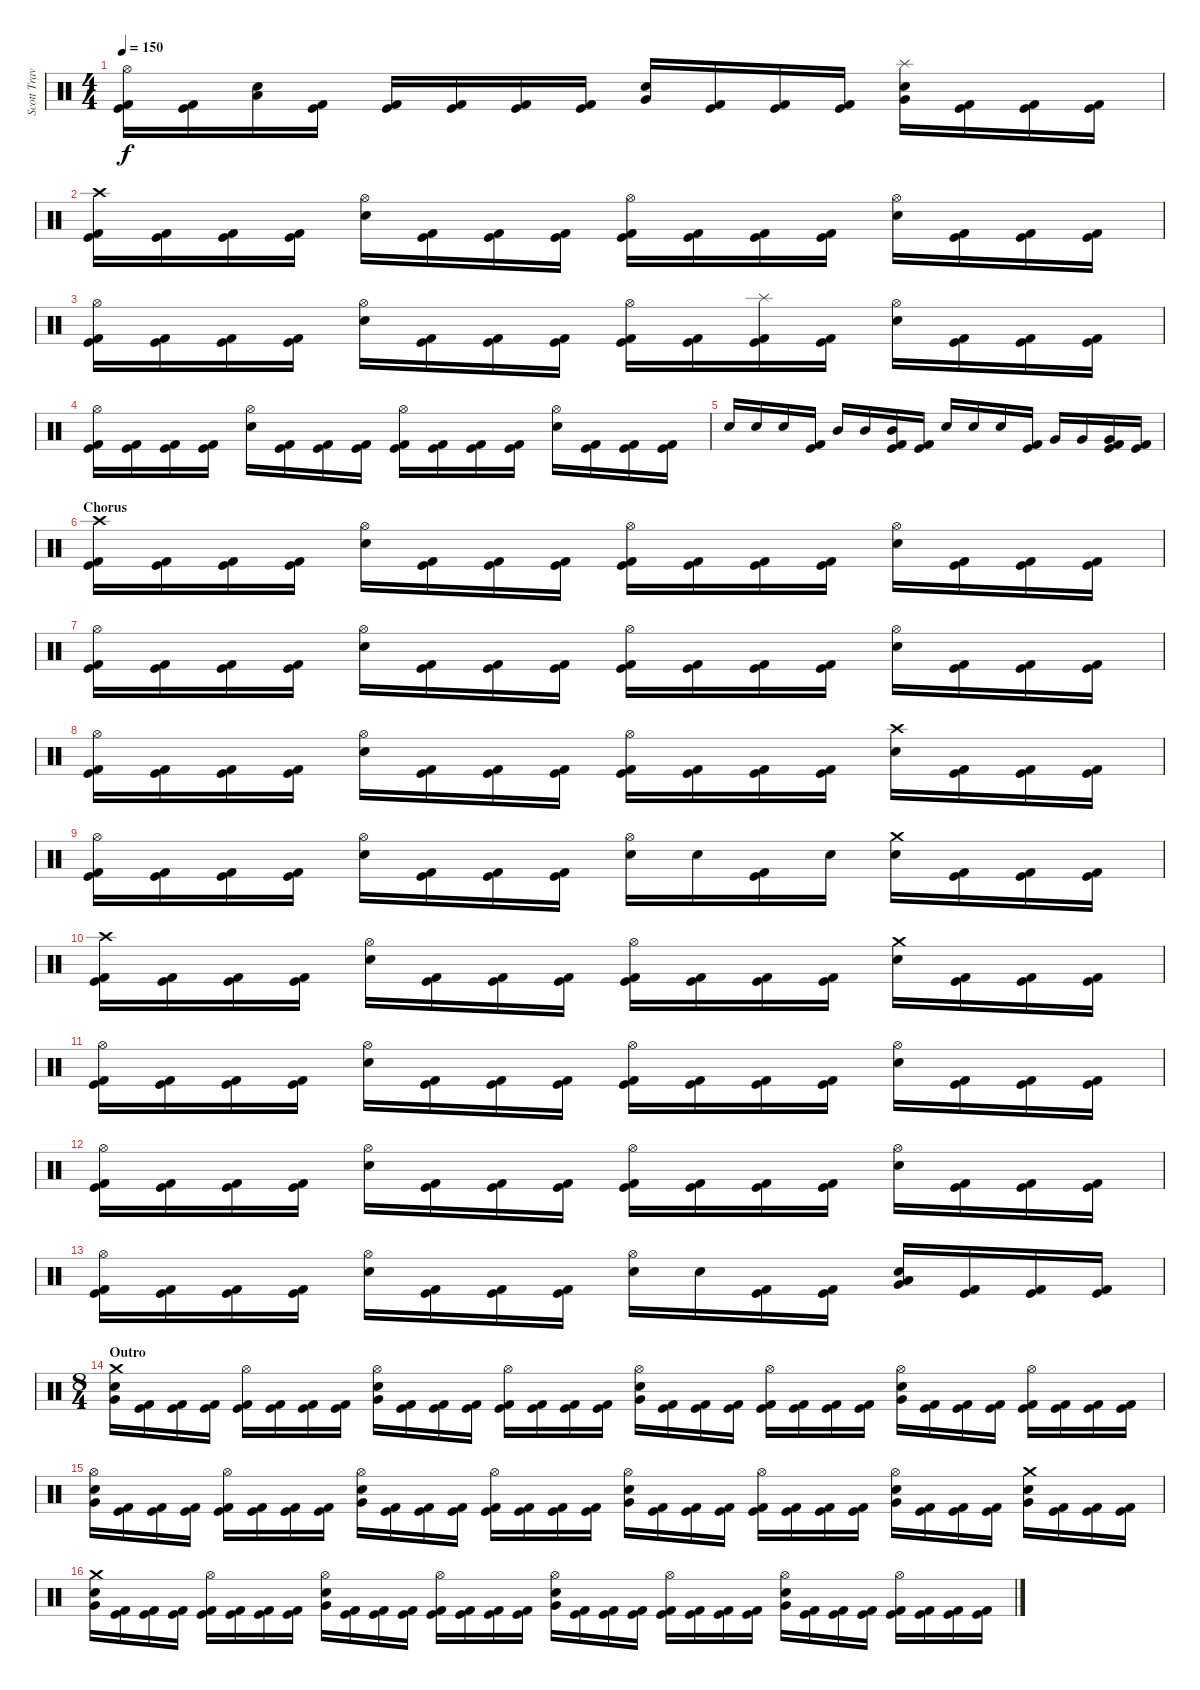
\track ("Scott Travis" "Scott Trav") {instrument percussion}
\staff {score}
\articulation defaults
\ts (4 4)
\tempo 150
\clef neutral
\ks c
("Hi-Hat (open)" "Kick (hit)" "Kick (hit) 2").16{dy f} ("Kick (hit)" "Kick (hit) 2").16 ("Low Tom (hit)" "Electric Snare (hit)").16 ("Kick (hit)" "Kick (hit) 2").16 ("Kick (hit)" "Kick (hit) 2").16 ("Kick (hit)" "Kick (hit) 2").16 ("Kick (hit)" "Kick (hit) 2").16 ("Kick (hit)" "Kick (hit) 2").16 ("Very Low Tom (hit)" "Electric Snare (hit)").16 ("Kick (hit)" "Kick (hit) 2").16 ("Kick (hit)" "Kick (hit) 2").16 ("Kick (hit)" "Kick (hit) 2").16 ("Splash (hit)" "Very Low Tom (hit)" "Electric Snare (hit)").16 ("Kick (hit)" "Kick (hit) 2").16 ("Kick (hit)" "Kick (hit) 2").16 ("Kick (hit)" "Kick (hit) 2").16 |
("Crash high (hit)" "Kick (hit)" "Kick (hit) 2").16 ("Kick (hit)" "Kick (hit) 2").16 ("Kick (hit)" "Kick (hit) 2").16 ("Kick (hit)" "Kick (hit) 2").16 ("Hi-Hat (open)" "Electric Snare (hit)").16 ("Kick (hit)" "Kick (hit) 2").16 ("Kick (hit)" "Kick (hit) 2").16 ("Kick (hit)" "Kick (hit) 2").16 ("Hi-Hat (open)" "Kick (hit)" "Kick (hit) 2").16 ("Kick (hit)" "Kick (hit) 2").16 ("Kick (hit)" "Kick (hit) 2").16 ("Kick (hit)" "Kick (hit) 2").16 ("Hi-Hat (open)" "Electric Snare (hit)").16 ("Kick (hit)" "Kick (hit) 2").16 ("Kick (hit)" "Kick (hit) 2").16 ("Kick (hit)" "Kick (hit) 2").16 |
("Hi-Hat (open)" "Kick (hit)" "Kick (hit) 2").16 ("Kick (hit)" "Kick (hit) 2").16 ("Kick (hit)" "Kick (hit) 2").16 ("Kick (hit)" "Kick (hit) 2").16 ("Hi-Hat (open)" "Electric Snare (hit)").16 ("Kick (hit)" "Kick (hit) 2").16 ("Kick (hit)" "Kick (hit) 2").16 ("Kick (hit)" "Kick (hit) 2").16 ("Hi-Hat (open)" "Kick (hit)" "Kick (hit) 2").16 ("Kick (hit)" "Kick (hit) 2").16 ("Splash (hit)" "Kick (hit)" "Kick (hit) 2").16 ("Kick (hit)" "Kick (hit) 2").16 ("Hi-Hat (open)" "Electric Snare (hit)").16 ("Kick (hit)" "Kick (hit) 2").16 ("Kick (hit)" "Kick (hit) 2").16 ("Kick (hit)" "Kick (hit) 2").16 |
("Hi-Hat (open)" "Kick (hit)" "Kick (hit) 2").16 ("Kick (hit)" "Kick (hit) 2").16 ("Kick (hit)" "Kick (hit) 2").16 ("Kick (hit)" "Kick (hit) 2").16 ("Hi-Hat (open)" "Electric Snare (hit)").16 ("Kick (hit)" "Kick (hit) 2").16 ("Kick (hit)" "Kick (hit) 2").16 ("Kick (hit)" "Kick (hit) 2").16 ("Hi-Hat (open)" "Kick (hit)" "Kick (hit) 2").16 ("Kick (hit)" "Kick (hit) 2").16 ("Kick (hit)" "Kick (hit) 2").16 ("Kick (hit)" "Kick (hit) 2").16 ("Hi-Hat (open)" "Electric Snare (hit)").16 ("Kick (hit)" "Kick (hit) 2").16 ("Kick (hit)" "Kick (hit) 2").16 ("Kick (hit)" "Kick (hit) 2").16 |
"Electric Snare (hit)".16 "Electric Snare (hit)".16 "Electric Snare (hit)".16 ("Kick (hit)" "Kick (hit) 2").16 "Mid Tom (hit)".16 "Mid Tom (hit)".16 ("Mid Tom (hit)" "Kick (hit)" "Kick (hit) 2").16 ("Kick (hit)" "Kick (hit) 2").16 "Electric Snare (hit)".16 "Electric Snare (hit)".16 "Electric Snare (hit)".16 ("Kick (hit)" "Kick (hit) 2").16 "Very Low Tom (hit)".16 "Very Low Tom (hit)".16 ("Very Low Tom (hit)" "Kick (hit)" "Kick (hit) 2").16 ("Kick (hit)" "Kick (hit) 2").16 |
\section ("" "Chorus")
("Crash high (hit)" "Kick (hit)" "Kick (hit) 2").16 ("Kick (hit)" "Kick (hit) 2").16 ("Kick (hit)" "Kick (hit) 2").16 ("Kick (hit)" "Kick (hit) 2").16 ("Hi-Hat (open)" "Electric Snare (hit)").16 ("Kick (hit)" "Kick (hit) 2").16 ("Kick (hit)" "Kick (hit) 2").16 ("Kick (hit)" "Kick (hit) 2").16 ("Hi-Hat (open)" "Kick (hit)" "Kick (hit) 2").16 ("Kick (hit)" "Kick (hit) 2").16 ("Kick (hit)" "Kick (hit) 2").16 ("Kick (hit)" "Kick (hit) 2").16 ("Hi-Hat (open)" "Electric Snare (hit)").16 ("Kick (hit)" "Kick (hit) 2").16 ("Kick (hit)" "Kick (hit) 2").16 ("Kick (hit)" "Kick (hit) 2").16 |
("Hi-Hat (open)" "Kick (hit)" "Kick (hit) 2").16 ("Kick (hit)" "Kick (hit) 2").16 ("Kick (hit)" "Kick (hit) 2").16 ("Kick (hit)" "Kick (hit) 2").16 ("Hi-Hat (open)" "Electric Snare (hit)").16 ("Kick (hit)" "Kick (hit) 2").16 ("Kick (hit)" "Kick (hit) 2").16 ("Kick (hit)" "Kick (hit) 2").16 ("Hi-Hat (open)" "Kick (hit)" "Kick (hit) 2").16 ("Kick (hit)" "Kick (hit) 2").16 ("Kick (hit)" "Kick (hit) 2").16 ("Kick (hit)" "Kick (hit) 2").16 ("Hi-Hat (open)" "Electric Snare (hit)").16 ("Kick (hit)" "Kick (hit) 2").16 ("Kick (hit)" "Kick (hit) 2").16 ("Kick (hit)" "Kick (hit) 2").16 |
("Hi-Hat (open)" "Kick (hit)" "Kick (hit) 2").16 ("Kick (hit)" "Kick (hit) 2").16 ("Kick (hit)" "Kick (hit) 2").16 ("Kick (hit)" "Kick (hit) 2").16 ("Hi-Hat (open)" "Electric Snare (hit)").16 ("Kick (hit)" "Kick (hit) 2").16 ("Kick (hit)" "Kick (hit) 2").16 ("Kick (hit)" "Kick (hit) 2").16 ("Hi-Hat (open)" "Kick (hit)" "Kick (hit) 2").16 ("Kick (hit)" "Kick (hit) 2").16 ("Kick (hit)" "Kick (hit) 2").16 ("Kick (hit)" "Kick (hit) 2").16 ("Crash high (hit)" "Electric Snare (hit)").16 ("Kick (hit)" "Kick (hit) 2").16 ("Kick (hit)" "Kick (hit) 2").16 ("Kick (hit)" "Kick (hit) 2").16 |
("Hi-Hat (open)" "Kick (hit)" "Kick (hit) 2").16 ("Kick (hit)" "Kick (hit) 2").16 ("Kick (hit)" "Kick (hit) 2").16 ("Kick (hit)" "Kick (hit) 2").16 ("Hi-Hat (open)" "Electric Snare (hit)").16 ("Kick (hit)" "Kick (hit) 2").16 ("Kick (hit)" "Kick (hit) 2").16 ("Kick (hit)" "Kick (hit) 2").16 ("Hi-Hat (open)" "Electric Snare (hit)").16 "Electric Snare (hit)".16 ("Kick (hit)" "Kick (hit) 2").16 "Electric Snare (hit)".16 ("Crash medium (hit)" "Electric Snare (hit)").16 ("Kick (hit)" "Kick (hit) 2").16 ("Kick (hit)" "Kick (hit) 2").16 ("Kick (hit)" "Kick (hit) 2").16 |
("Crash high (hit)" "Kick (hit)" "Kick (hit) 2").16 ("Kick (hit)" "Kick (hit) 2").16 ("Kick (hit)" "Kick (hit) 2").16 ("Kick (hit)" "Kick (hit) 2").16 ("Hi-Hat (open)" "Electric Snare (hit)").16 ("Kick (hit)" "Kick (hit) 2").16 ("Kick (hit)" "Kick (hit) 2").16 ("Kick (hit)" "Kick (hit) 2").16 ("Hi-Hat (open)" "Kick (hit)" "Kick (hit) 2").16 ("Kick (hit)" "Kick (hit) 2").16 ("Kick (hit)" "Kick (hit) 2").16 ("Kick (hit)" "Kick (hit) 2").16 ("Crash medium (hit)" "Electric Snare (hit)").16 ("Kick (hit)" "Kick (hit) 2").16 ("Kick (hit)" "Kick (hit) 2").16 ("Kick (hit)" "Kick (hit) 2").16 |
("Hi-Hat (open)" "Kick (hit)" "Kick (hit) 2").16 ("Kick (hit)" "Kick (hit) 2").16 ("Kick (hit)" "Kick (hit) 2").16 ("Kick (hit)" "Kick (hit) 2").16 ("Hi-Hat (open)" "Electric Snare (hit)").16 ("Kick (hit)" "Kick (hit) 2").16 ("Kick (hit)" "Kick (hit) 2").16 ("Kick (hit)" "Kick (hit) 2").16 ("Hi-Hat (open)" "Kick (hit)" "Kick (hit) 2").16 ("Kick (hit)" "Kick (hit) 2").16 ("Kick (hit)" "Kick (hit) 2").16 ("Kick (hit)" "Kick (hit) 2").16 ("Hi-Hat (open)" "Electric Snare (hit)").16 ("Kick (hit)" "Kick (hit) 2").16 ("Kick (hit)" "Kick (hit) 2").16 ("Kick (hit)" "Kick (hit) 2").16 |
("Hi-Hat (open)" "Kick (hit)" "Kick (hit) 2").16 ("Kick (hit)" "Kick (hit) 2").16 ("Kick (hit)" "Kick (hit) 2").16 ("Kick (hit)" "Kick (hit) 2").16 ("Hi-Hat (open)" "Electric Snare (hit)").16 ("Kick (hit)" "Kick (hit) 2").16 ("Kick (hit)" "Kick (hit) 2").16 ("Kick (hit)" "Kick (hit) 2").16 ("Hi-Hat (open)" "Kick (hit)" "Kick (hit) 2").16 ("Kick (hit)" "Kick (hit) 2").16 ("Kick (hit)" "Kick (hit) 2").16 ("Kick (hit)" "Kick (hit) 2").16 ("Hi-Hat (open)" "Electric Snare (hit)").16 ("Kick (hit)" "Kick (hit) 2").16 ("Kick (hit)" "Kick (hit) 2").16 ("Kick (hit)" "Kick (hit) 2").16 |
("Hi-Hat (open)" "Kick (hit)" "Kick (hit) 2").16 ("Kick (hit)" "Kick (hit) 2").16 ("Kick (hit)" "Kick (hit) 2").16 ("Kick (hit)" "Kick (hit) 2").16 ("Hi-Hat (open)" "Electric Snare (hit)").16 ("Kick (hit)" "Kick (hit) 2").16 ("Kick (hit)" "Kick (hit) 2").16 ("Kick (hit)" "Kick (hit) 2").16 ("Hi-Hat (open)" "Electric Snare (hit)").16 "Electric Snare (hit)".16 ("Kick (hit)" "Kick (hit) 2").16 ("Kick (hit)" "Kick (hit) 2").16 ("Low Tom (hit)" "Very Low Tom (hit)" "Electric Snare (hit)").16 ("Kick (hit)" "Kick (hit) 2").16 ("Kick (hit)" "Kick (hit) 2").16 ("Kick (hit)" "Kick (hit) 2").16 |
\ts (8 4)
\section ("" "Outro")
("Crash medium (hit)" "Very Low Tom (hit)" "Electric Snare (hit)").16 ("Kick (hit)" "Kick (hit) 2").16 ("Kick (hit)" "Kick (hit) 2").16 ("Kick (hit)" "Kick (hit) 2").16 ("Hi-Hat (open)" "Kick (hit)" "Kick (hit) 2").16 ("Kick (hit)" "Kick (hit) 2").16 ("Kick (hit)" "Kick (hit) 2").16 ("Kick (hit)" "Kick (hit) 2").16 ("Hi-Hat (open)" "Very Low Tom (hit)" "Electric Snare (hit)").16 ("Kick (hit)" "Kick (hit) 2").16 ("Kick (hit)" "Kick (hit) 2").16 ("Kick (hit)" "Kick (hit) 2").16 ("Hi-Hat (open)" "Kick (hit)" "Kick (hit) 2").16 ("Kick (hit)" "Kick (hit) 2").16 ("Kick (hit)" "Kick (hit) 2").16 ("Kick (hit)" "Kick (hit) 2").16 ("Hi-Hat (open)" "Very Low Tom (hit)" "Electric Snare (hit)").16 ("Kick (hit)" "Kick (hit) 2").16 ("Kick (hit)" "Kick (hit) 2").16 ("Kick (hit)" "Kick (hit) 2").16 ("Hi-Hat (open)" "Kick (hit)" "Kick (hit) 2").16 ("Kick (hit)" "Kick (hit) 2").16 ("Kick (hit)" "Kick (hit) 2").16 ("Kick (hit)" "Kick (hit) 2").16 ("Hi-Hat (open)" "Very Low Tom (hit)" "Electric Snare (hit)").16 ("Kick (hit)" "Kick (hit) 2").16 ("Kick (hit)" "Kick (hit) 2").16 ("Kick (hit)" "Kick (hit) 2").16 ("Hi-Hat (open)" "Kick (hit)" "Kick (hit) 2").16 ("Kick (hit)" "Kick (hit) 2").16 ("Kick (hit)" "Kick (hit) 2").16 ("Kick (hit)" "Kick (hit) 2").16 |
("Hi-Hat (open)" "Very Low Tom (hit)" "Electric Snare (hit)").16 ("Kick (hit)" "Kick (hit) 2").16 ("Kick (hit)" "Kick (hit) 2").16 ("Kick (hit)" "Kick (hit) 2").16 ("Hi-Hat (open)" "Kick (hit)" "Kick (hit) 2").16 ("Kick (hit)" "Kick (hit) 2").16 ("Kick (hit)" "Kick (hit) 2").16 ("Kick (hit)" "Kick (hit) 2").16 ("Hi-Hat (open)" "Very Low Tom (hit)" "Electric Snare (hit)").16 ("Kick (hit)" "Kick (hit) 2").16 ("Kick (hit)" "Kick (hit) 2").16 ("Kick (hit)" "Kick (hit) 2").16 ("Hi-Hat (open)" "Kick (hit)" "Kick (hit) 2").16 ("Kick (hit)" "Kick (hit) 2").16 ("Kick (hit)" "Kick (hit) 2").16 ("Kick (hit)" "Kick (hit) 2").16 ("Hi-Hat (open)" "Very Low Tom (hit)" "Electric Snare (hit)").16 ("Kick (hit)" "Kick (hit) 2").16 ("Kick (hit)" "Kick (hit) 2").16 ("Kick (hit)" "Kick (hit) 2").16 ("Hi-Hat (open)" "Kick (hit)" "Kick (hit) 2").16 ("Kick (hit)" "Kick (hit) 2").16 ("Kick (hit)" "Kick (hit) 2").16 ("Kick (hit)" "Kick (hit) 2").16 ("Hi-Hat (open)" "Very Low Tom (hit)" "Electric Snare (hit)").16 ("Kick (hit)" "Kick (hit) 2").16 ("Kick (hit)" "Kick (hit) 2").16 ("Kick (hit)" "Kick (hit) 2").16 ("Crash medium (hit)" "Very Low Tom (hit)" "Electric Snare (hit)").16 ("Kick (hit)" "Kick (hit) 2").16 ("Kick (hit)" "Kick (hit) 2").16 ("Kick (hit)" "Kick (hit) 2").16 |
("Crash medium (hit)" "Very Low Tom (hit)" "Electric Snare (hit)").16 ("Kick (hit)" "Kick (hit) 2").16 ("Kick (hit)" "Kick (hit) 2").16 ("Kick (hit)" "Kick (hit) 2").16 ("Hi-Hat (open)" "Kick (hit)" "Kick (hit) 2").16 ("Kick (hit)" "Kick (hit) 2").16 ("Kick (hit)" "Kick (hit) 2").16 ("Kick (hit)" "Kick (hit) 2").16 ("Hi-Hat (open)" "Very Low Tom (hit)" "Electric Snare (hit)").16 ("Kick (hit)" "Kick (hit) 2").16 ("Kick (hit)" "Kick (hit) 2").16 ("Kick (hit)" "Kick (hit) 2").16 ("Hi-Hat (open)" "Kick (hit)" "Kick (hit) 2").16 ("Kick (hit)" "Kick (hit) 2").16 ("Kick (hit)" "Kick (hit) 2").16 ("Kick (hit)" "Kick (hit) 2").16 ("Hi-Hat (open)" "Very Low Tom (hit)" "Electric Snare (hit)").16 ("Kick (hit)" "Kick (hit) 2").16 ("Kick (hit)" "Kick (hit) 2").16 ("Kick (hit)" "Kick (hit) 2").16 ("Hi-Hat (open)" "Kick (hit)" "Kick (hit) 2").16 ("Kick (hit)" "Kick (hit) 2").16 ("Kick (hit)" "Kick (hit) 2").16 ("Kick (hit)" "Kick (hit) 2").16 ("Hi-Hat (open)" "Very Low Tom (hit)" "Electric Snare (hit)").16 ("Kick (hit)" "Kick (hit) 2").16 ("Kick (hit)" "Kick (hit) 2").16 ("Kick (hit)" "Kick (hit) 2").16 ("Hi-Hat (open)" "Kick (hit)" "Kick (hit) 2").16 ("Kick (hit)" "Kick (hit) 2").16 ("Kick (hit)" "Kick (hit) 2").16 ("Kick (hit)" "Kick (hit) 2").16
